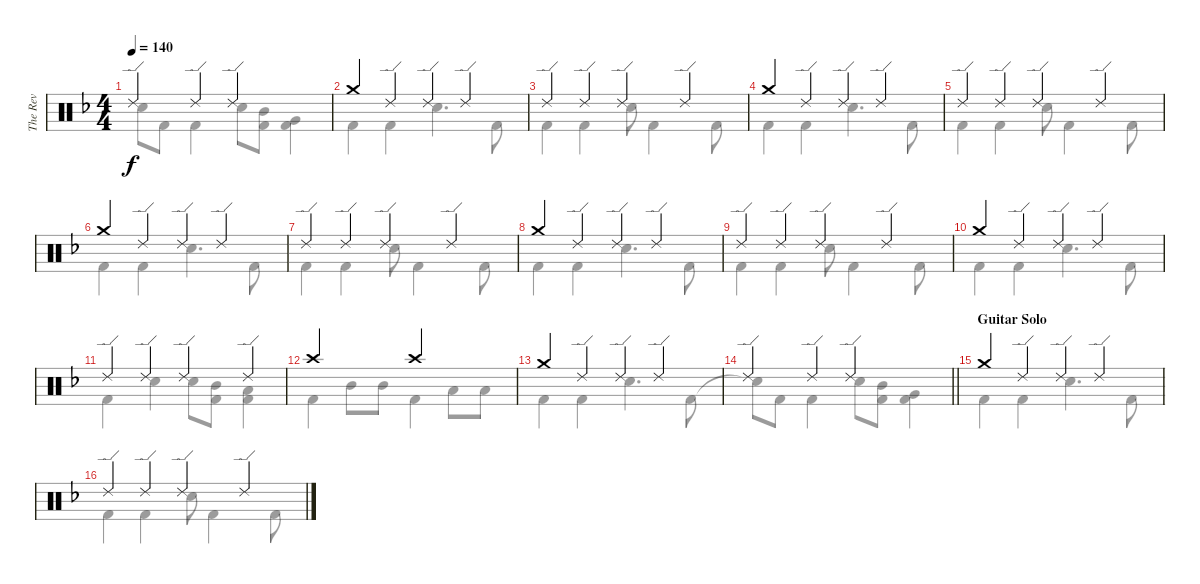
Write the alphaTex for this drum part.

\track ("The Rev" "The Rev") {instrument percussion}
\staff {score}
\articulation defaults
\voice
\ts (4 4)
\tempo 140
\clef neutral
\ks dminor "Ride (edge) 2".4{dy f} "Ride (edge) 2".4 "Ride (edge) 2".2
|
"Crash medium (hit)".4 "Ride (edge) 2".4 "Ride (edge) 2".4 "Ride (edge) 2".4 |
"Ride (edge) 2".4 "Ride (edge) 2".4 "Ride (edge) 2".4 "Ride (edge) 2".4 |
"Crash medium (hit)".4 "Ride (edge) 2".4 "Ride (edge) 2".4 "Ride (edge) 2".4 |
"Ride (edge) 2".4 "Ride (edge) 2".4 "Ride (edge) 2".4 "Ride (edge) 2".4 |
"Crash medium (hit)".4 "Ride (edge) 2".4 "Ride (edge) 2".4 "Ride (edge) 2".4 |
"Ride (edge) 2".4 "Ride (edge) 2".4 "Ride (edge) 2".4 "Ride (edge) 2".4 |
"Crash medium (hit)".4 "Ride (edge) 2".4 "Ride (edge) 2".4 "Ride (edge) 2".4 |
"Ride (edge) 2".4 "Ride (edge) 2".4 "Ride (edge) 2".4 "Ride (edge) 2".4 |
"Crash medium (hit)".4 "Ride (edge) 2".4 "Ride (edge) 2".4 "Ride (edge) 2".4 |
"Ride (edge) 2".4 "Ride (edge) 2".4 "Ride (edge) 2".4 "Ride (edge) 2".4 |
"Crash high (hit)".2 "Crash high (hit)".2 |
"Crash medium (hit)".4 "Ride (edge) 2".4 "Ride (edge) 2".4 "Ride (edge) 2".4 |
\barLineRight lightlight "Ride (edge) 2".4 "Ride (edge) 2".4 "Ride (edge) 2".2
|
\section ("" "Guitar Solo")
"Crash medium (hit)".4 "Ride (edge) 2".4 "Ride (edge) 2".4 "Ride (edge) 2".4 |
"Ride (edge) 2".4 "Ride (edge) 2".4 "Ride (edge) 2".4 "Ride (edge) 2".4
\voice
\clef neutral
\ottava regular
\simile none
\ks dminor "Snare (hit)"{t}.8{dy f} "Kick (hit) 2".8 "Kick (hit) 2".4 "Electric Snare (hit)".8
("Mid Tom (hit)" "Kick (hit) 2").8 ("Very Low Tom (hit)" "Kick (hit) 2").4 |
"Kick (hit) 2".4 "Kick (hit) 2".4 "Electric Snare (hit)".4{d} "Kick (hit) 2".8 |
"Kick (hit) 2".4 "Kick (hit) 2".4 "Electric Snare (hit)".8 "Kick (hit) 2".4 "Kick (hit) 2".8 |
"Kick (hit) 2".4 "Kick (hit) 2".4 "Electric Snare (hit)".4{d} "Kick (hit) 2".8 |
"Kick (hit) 2".4 "Kick (hit) 2".4 "Electric Snare (hit)".8 "Kick (hit) 2".4 "Kick (hit) 2".8 |
"Kick (hit) 2".4 "Kick (hit) 2".4 "Electric Snare (hit)".4{d} "Kick (hit) 2".8 |
"Kick (hit) 2".4 "Kick (hit) 2".4 "Electric Snare (hit)".8 "Kick (hit) 2".4 "Kick (hit) 2".8 |
"Kick (hit) 2".4 "Kick (hit) 2".4 "Electric Snare (hit)".4{d} "Kick (hit) 2".8 |
"Kick (hit) 2".4 "Kick (hit) 2".4 "Electric Snare (hit)".8 "Kick (hit) 2".4 "Kick (hit) 2".8 |
"Kick (hit) 2".4 "Kick (hit) 2".4 "Electric Snare (hit)".4{d} "Kick (hit) 2".8 |
"Kick (hit) 2".4 "Electric Snare (hit)".4 "Electric Snare (hit)".8 ("Mid Tom (hit)" "Kick (hit) 2").8 ("Low Tom (hit)" "Kick (hit) 2").4 |
"Kick (hit) 2".4 "Mid Tom (hit)".8 "Mid Tom (hit)".8 "Kick (hit) 2".4 "Low Tom (hit)".8 "Low Tom (hit)".8 |
"Kick (hit) 2".4 "Kick (hit) 2".4 "Electric Snare (hit)".4{d} "Kick (hit) 2".8 |
\barLineRight lightlight "Snare (hit)"{t}.8 "Kick (hit) 2".8 "Kick (hit) 2".4 "Electric Snare (hit)".8
("Mid Tom (hit)" "Kick (hit) 2").8 ("Very Low Tom (hit)" "Kick (hit) 2").4 |
"Kick (hit) 2".4 "Kick (hit) 2".4 "Electric Snare (hit)".4{d} "Kick (hit) 2".8 |
"Kick (hit) 2".4 "Kick (hit) 2".4 "Electric Snare (hit)".8 "Kick (hit) 2".4 "Kick (hit) 2".8
